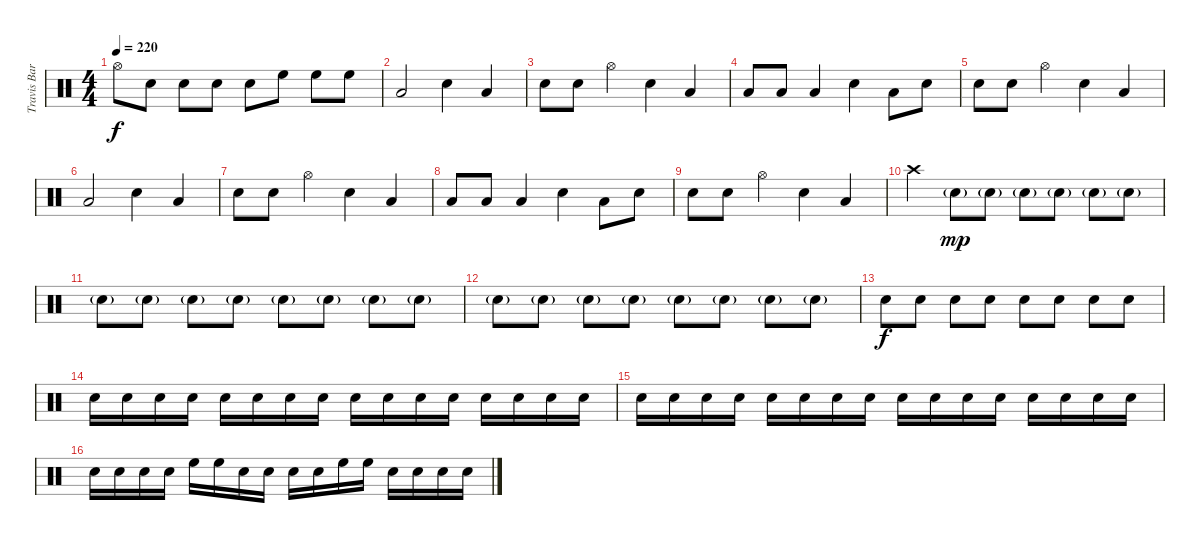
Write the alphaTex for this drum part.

\track ("Travis Barker" "Travis Bar") {instrument percussion}
\staff {score}
\articulation defaults
\ts (4 4)
\tempo 220
\clef neutral
\ks c "Hi-Hat (open)".8{dy f} "Snare (hit) 2".8 "Snare (hit) 2".8 "Snare (hit) 2".8 "Snare (hit) 2".8 "High Floor Tom (hit)".8 "High Floor Tom (hit)".8 "High Floor Tom (hit)".8
|
"Low Floor Tom (hit)".2 "Snare (hit) 2".4 "Low Floor Tom (hit)".4 |
"Snare (hit) 2".8 "Snare (hit) 2".8 "Hi-Hat (open)".4 "Snare (hit) 2".4 "Low Floor Tom (hit)".4 |
"Low Floor Tom (hit)".8 "Low Floor Tom (hit)".8 "Low Floor Tom (hit)".4 "Snare (hit) 2".4 "Low Floor Tom (hit)".8 "Snare (hit) 2".8 |
"Snare (hit) 2".8 "Snare (hit) 2".8 "Hi-Hat (open)".4 "Snare (hit) 2".4 "Low Floor Tom (hit)".4 |
"Low Floor Tom (hit)".2 "Snare (hit) 2".4 "Low Floor Tom (hit)".4 |
"Snare (hit) 2".8 "Snare (hit) 2".8 "Hi-Hat (open)".4 "Snare (hit) 2".4 "Low Floor Tom (hit)".4 |
"Low Floor Tom (hit)".8 "Low Floor Tom (hit)".8 "Low Floor Tom (hit)".4 "Snare (hit) 2".4 "Low Floor Tom (hit)".8 "Snare (hit) 2".8 |
"Snare (hit) 2".8 "Snare (hit) 2".8 "Hi-Hat (open)".4 "Snare (hit) 2".4 "Low Floor Tom (hit)".4 |
"Crash high (hit)".4 "Snare (hit) 2"{g}.8{dy mp} "Snare (hit) 2"{g}.8 "Snare (hit) 2"{g}.8 "Snare (hit) 2"{g}.8 "Snare (hit) 2"{g}.8 "Snare (hit) 2"{g}.8 |
"Snare (hit) 2"{g}.8 "Snare (hit) 2"{g}.8 "Snare (hit) 2"{g}.8 "Snare (hit) 2"{g}.8 "Snare (hit) 2"{g}.8 "Snare (hit) 2"{g}.8 "Snare (hit) 2"{g}.8 "Snare (hit) 2"{g}.8 |
"Snare (hit) 2"{g}.8 "Snare (hit) 2"{g}.8 "Snare (hit) 2"{g}.8 "Snare (hit) 2"{g}.8 "Snare (hit) 2"{g}.8 "Snare (hit) 2"{g}.8 "Snare (hit) 2"{g}.8 "Snare (hit) 2"{g}.8 |
"Snare (hit) 2".8{dy f} "Snare (hit) 2".8 "Snare (hit) 2".8 "Snare (hit) 2".8 "Snare (hit) 2".8 "Snare (hit) 2".8 "Snare (hit) 2".8 "Snare (hit) 2".8 |
"Snare (hit) 2".16 "Snare (hit) 2".16 "Snare (hit) 2".16 "Snare (hit) 2".16 "Snare (hit) 2".16 "Snare (hit) 2".16 "Snare (hit) 2".16 "Snare (hit) 2".16 "Snare (hit) 2".16 "Snare (hit) 2".16 "Snare (hit) 2".16 "Snare (hit) 2".16 "Snare (hit) 2".16 "Snare (hit) 2".16 "Snare (hit) 2".16 "Snare (hit) 2".16 |
"Snare (hit) 2".16 "Snare (hit) 2".16 "Snare (hit) 2".16 "Snare (hit) 2".16 "Snare (hit) 2".16 "Snare (hit) 2".16 "Snare (hit) 2".16 "Snare (hit) 2".16 "Snare (hit) 2".16 "Snare (hit) 2".16 "Snare (hit) 2".16 "Snare (hit) 2".16 "Snare (hit) 2".16 "Snare (hit) 2".16 "Snare (hit) 2".16 "Snare (hit) 2".16 |
"Snare (hit) 2".16 "Snare (hit) 2".16 "Snare (hit) 2".16 "Snare (hit) 2".16 "High Floor Tom (hit)".16 "High Floor Tom (hit)".16 "Snare (hit) 2".16 "Snare (hit) 2".16 "Snare (hit) 2".16 "Snare (hit) 2".16 "High Floor Tom (hit)".16 "High Floor Tom (hit)".16 "Snare (hit) 2".16 "Snare (hit) 2".16 "Snare (hit) 2".16 "Snare (hit) 2".16
